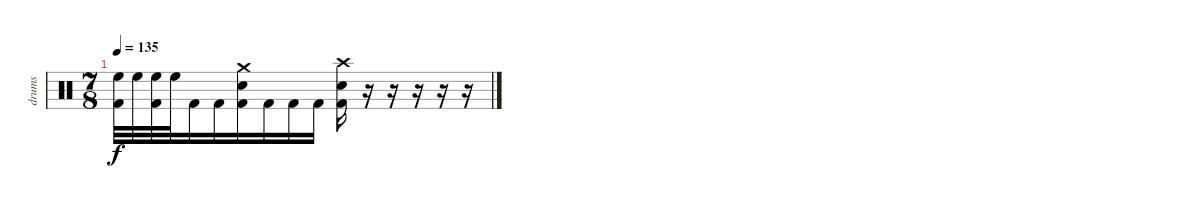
\track ("drums" "drums") {instrument percussion}
\staff {score}
\articulation defaults
\ts (7 8)
\tempo 135
\clef neutral
\ks c
("High Floor Tom (hit)" "Kick (hit) 2").32{dy f} "High Floor Tom (hit)".32 ("High Floor Tom (hit)" "Kick (hit) 2").32 "High Floor Tom (hit)".32 "Kick (hit) 2".16 "Kick (hit) 2".16 ("Crash medium (hit)" "Electric Snare (hit)" "Kick (hit) 2").16 "Kick (hit) 2".16 "Kick (hit) 2".16 "Kick (hit) 2".16 ("Crash high (hit)" "Electric Snare (hit)" "Kick (hit) 2").16 r.16 r.16 r.16 r.16 r.16
